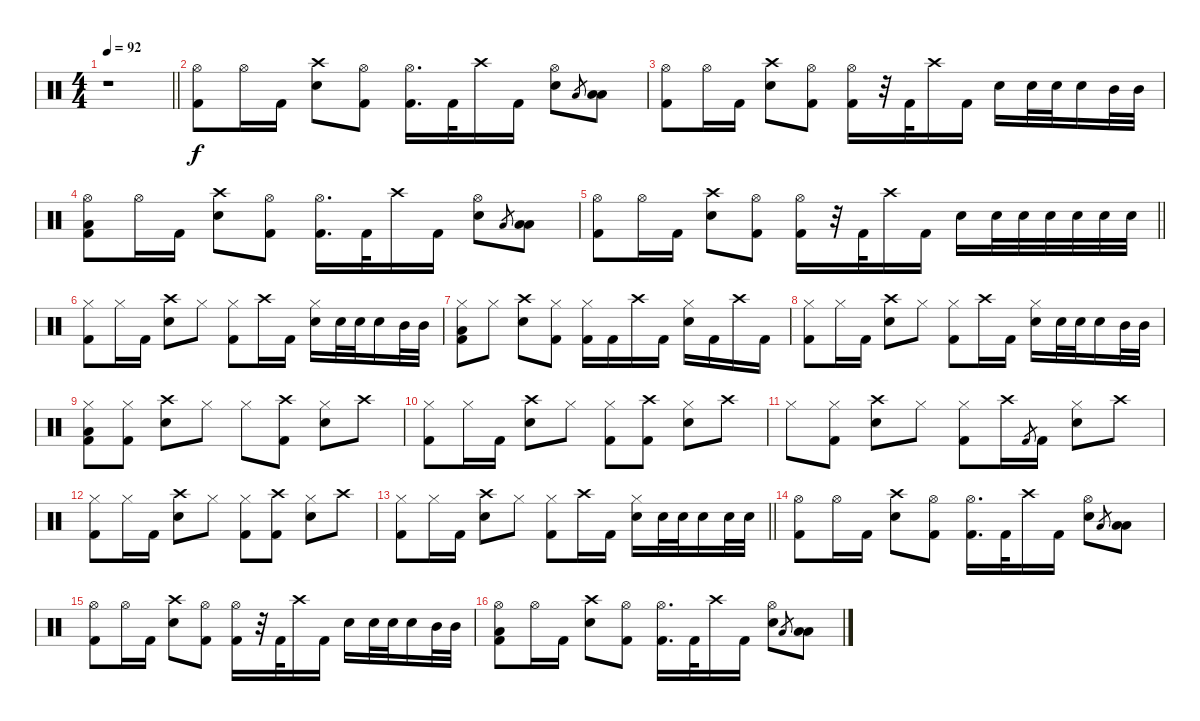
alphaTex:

\track "" {instrument percussion}
\staff {score}
\articulation defaults
\ts (4 4)
\tempo 92
\clef neutral
\barLineRight lightlight
\ks c
r.1{dy f} |
("Hi-Hat (open)" "Kick (hit) 2").8 "Hi-Hat (open)".16 "Kick (hit) 2".16 ("Crash high (hit)" "Electric Snare (hit)").8 ("Hi-Hat (open)" "Kick (hit) 2").8 ("Hi-Hat (open)" "Kick (hit) 2").16{d} "Kick (hit) 2".32 "Crash high (hit)".16 "Kick (hit) 2".16 ("Hi-Hat (open)" "Electric Snare (hit)").8 "Low Tom (hit)".8{gr} ("Low Tom (hit)" "Low Tom (hit)").8 |
("Hi-Hat (open)" "Kick (hit) 2").8 "Hi-Hat (open)".16 "Kick (hit) 2".16 ("Crash high (hit)" "Electric Snare (hit)").8 ("Hi-Hat (open)" "Kick (hit) 2").8 ("Hi-Hat (open)" "Kick (hit) 2").16 r.32 "Kick (hit) 2".32 "Crash high (hit)".16 "Kick (hit) 2".16 "Electric Snare (hit)".16 "Electric Snare (hit)".32 "Electric Snare (hit)".32 "Electric Snare (hit)".16 "Mid Tom (hit)".32 "Mid Tom (hit)".32 |
("Hi-Hat (open)" "Low Tom (hit)" "Kick (hit) 2").8 "Hi-Hat (open)".16 "Kick (hit) 2".16 ("Crash high (hit)" "Electric Snare (hit)").8 ("Hi-Hat (open)" "Kick (hit) 2").8 ("Hi-Hat (open)" "Kick (hit) 2").16{d} "Kick (hit) 2".32 "Crash high (hit)".16 "Kick (hit) 2".16 ("Hi-Hat (open)" "Electric Snare (hit)").8 "Low Tom (hit)".8{gr} ("Low Tom (hit)" "Low Tom (hit)").8 |
\barLineRight lightlight
("Hi-Hat (open)" "Kick (hit) 2").8 "Hi-Hat (open)".16 "Kick (hit) 2".16 ("Crash high (hit)" "Electric Snare (hit)").8 ("Hi-Hat (open)" "Kick (hit) 2").8 ("Hi-Hat (open)" "Kick (hit) 2").16 r.32 "Kick (hit) 2".32 "Crash high (hit)".16 "Kick (hit) 2".16 "Electric Snare (hit)".16 "Electric Snare (hit)".32 "Electric Snare (hit)".32 "Electric Snare (hit)".32 "Electric Snare (hit)".32 "Electric Snare (hit)".32 "Electric Snare (hit)".32 |
("Hi-Hat (closed)" "Kick (hit) 2").8 "Hi-Hat (closed)".16 "Kick (hit) 2".16 ("Crash high (hit)" "Electric Snare (hit)").8 "Hi-Hat (closed)".8 ("Hi-Hat (closed)" "Kick (hit) 2").8 "Crash high (hit)".16 "Kick (hit) 2".16 ("Hi-Hat (closed)" "Electric Snare (hit)").16 "Electric Snare (hit)".32 "Electric Snare (hit)".32 "Electric Snare (hit)".16 "Mid Tom (hit)".32 "Mid Tom (hit)".32 |
("Hi-Hat (closed)" "Low Tom (hit)" "Kick (hit) 2").8 "Hi-Hat (closed)".8 ("Crash high (hit)" "Electric Snare (hit)").8 ("Hi-Hat (closed)" "Kick (hit) 2").8 ("Hi-Hat (closed)" "Kick (hit) 2").16 "Kick (hit) 2".16 "Crash high (hit)".16 "Kick (hit) 2".16 ("Hi-Hat (closed)" "Electric Snare (hit)").16 "Kick (hit) 2".16 "Crash high (hit)".16 "Kick (hit) 2".16 |
("Hi-Hat (closed)" "Kick (hit) 2").8 "Hi-Hat (closed)".16 "Kick (hit) 2".16 ("Crash high (hit)" "Electric Snare (hit)").8 "Hi-Hat (closed)".8 ("Hi-Hat (closed)" "Kick (hit) 2").8 "Crash high (hit)".16 "Kick (hit) 2".16 ("Hi-Hat (closed)" "Electric Snare (hit)").16 "Electric Snare (hit)".32 "Electric Snare (hit)".32 "Electric Snare (hit)".16 "Mid Tom (hit)".32 "Mid Tom (hit)".32 |
("Hi-Hat (closed)" "Low Tom (hit)" "Kick (hit) 2").8 ("Hi-Hat (closed)" "Kick (hit) 2").8 ("Crash high (hit)" "Electric Snare (hit)").8 "Hi-Hat (closed)".8 "Hi-Hat (closed)".8 ("Crash high (hit)" "Kick (hit) 2").8 ("Hi-Hat (closed)" "Electric Snare (hit)").8 "Crash high (hit)".8 |
("Hi-Hat (closed)" "Kick (hit) 2").8 "Hi-Hat (closed)".16 "Kick (hit) 2".16 ("Crash high (hit)" "Electric Snare (hit)").8 "Hi-Hat (closed)".8 ("Hi-Hat (closed)" "Kick (hit) 2").8 ("Crash high (hit)" "Kick (hit) 2").8 ("Hi-Hat (closed)" "Electric Snare (hit)").8 "Crash high (hit)".8 |
"Hi-Hat (closed)".8 ("Hi-Hat (closed)" "Kick (hit) 2").8 ("Crash high (hit)" "Electric Snare (hit)").8 "Hi-Hat (closed)".8 ("Hi-Hat (closed)" "Kick (hit) 2").8 "Crash high (hit)".16 "Kick (hit) 2".8{gr} "Kick (hit) 2".16 ("Hi-Hat (closed)" "Electric Snare (hit)").8 "Crash high (hit)".8 |
("Hi-Hat (closed)" "Kick (hit) 2").8 "Hi-Hat (closed)".16 "Kick (hit) 2".16 ("Crash high (hit)" "Electric Snare (hit)").8 "Hi-Hat (closed)".8 ("Hi-Hat (closed)" "Kick (hit) 2").8 ("Crash high (hit)" "Kick (hit) 2").8 ("Hi-Hat (closed)" "Electric Snare (hit)").8 "Crash high (hit)".8 |
\barLineRight lightlight
("Hi-Hat (closed)" "Kick (hit) 2").8 "Hi-Hat (closed)".16 "Kick (hit) 2".16 ("Crash high (hit)" "Electric Snare (hit)").8 "Hi-Hat (closed)".8 ("Hi-Hat (closed)" "Kick (hit) 2").8 "Crash high (hit)".16 "Kick (hit) 2".16 ("Hi-Hat (closed)" "Electric Snare (hit)").16 "Electric Snare (hit)".32 "Electric Snare (hit)".32 "Electric Snare (hit)".16 "Electric Snare (hit)".32 "Electric Snare (hit)".32 |
("Hi-Hat (open)" "Kick (hit) 2").8 "Hi-Hat (open)".16 "Kick (hit) 2".16 ("Crash high (hit)" "Electric Snare (hit)").8 ("Hi-Hat (open)" "Kick (hit) 2").8 ("Hi-Hat (open)" "Kick (hit) 2").16{d} "Kick (hit) 2".32 "Crash high (hit)".16 "Kick (hit) 2".16 ("Hi-Hat (open)" "Electric Snare (hit)").8 "Low Tom (hit)".8{gr} ("Low Tom (hit)" "Low Tom (hit)").8 |
("Hi-Hat (open)" "Kick (hit) 2").8 "Hi-Hat (open)".16 "Kick (hit) 2".16 ("Crash high (hit)" "Electric Snare (hit)").8 ("Hi-Hat (open)" "Kick (hit) 2").8 ("Hi-Hat (open)" "Kick (hit) 2").16 r.32 "Kick (hit) 2".32 "Crash high (hit)".16 "Kick (hit) 2".16 "Electric Snare (hit)".16 "Electric Snare (hit)".32 "Electric Snare (hit)".32 "Electric Snare (hit)".16 "Mid Tom (hit)".32 "Mid Tom (hit)".32 |
("Hi-Hat (open)" "Low Tom (hit)" "Kick (hit) 2").8 "Hi-Hat (open)".16 "Kick (hit) 2".16 ("Crash high (hit)" "Electric Snare (hit)").8 ("Hi-Hat (open)" "Kick (hit) 2").8 ("Hi-Hat (open)" "Kick (hit) 2").16{d} "Kick (hit) 2".32 "Crash high (hit)".16 "Kick (hit) 2".16 ("Hi-Hat (open)" "Electric Snare (hit)").8 "Low Tom (hit)".8{gr} ("Low Tom (hit)" "Low Tom (hit)").8
